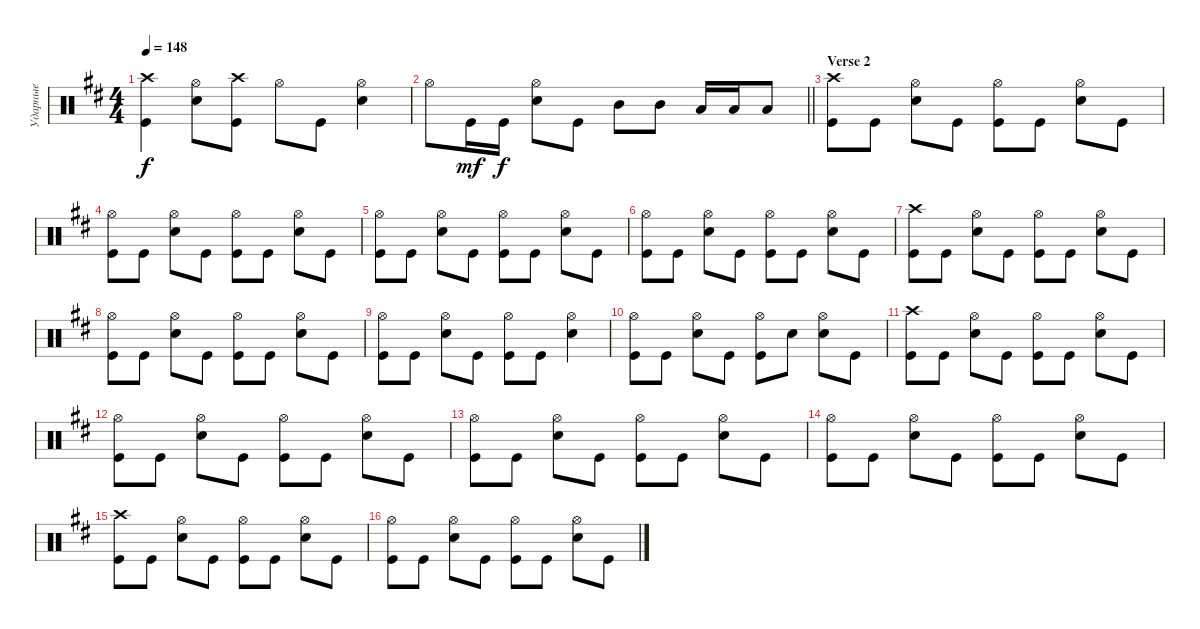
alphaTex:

\track ("Ударные" "Ударные") {instrument percussion}
\staff {score}
\articulation defaults
\ts (4 4)
\tempo 148
\clef neutral
\ks bminor
("Kick (hit)" "Crash high (hit)").4{dy f} ("Snare (hit) 2" "Hi-Hat (open)").8 ("Kick (hit)" "Crash high (hit)").8 "Hi-Hat (open)".8 "Kick (hit)".8 ("Snare (hit) 2" "Hi-Hat (open)").4 |
\barLineRight lightlight "Hi-Hat (open)".8 "Kick (hit)".16{dy mf} "Kick (hit)".16{dy f}
("Snare (hit) 2" "Hi-Hat (open)").8 "Kick (hit)".8 "Mid Tom (hit)".8 "Mid Tom (hit)".8 "Low Tom (hit)".16 "Low Tom (hit)".16 "Low Tom (hit)".8 |
\section ("" "Verse 2")
("Crash high (hit)" "Kick (hit)").8 "Kick (hit)".8 ("Snare (hit) 2" "Hi-Hat (open)").8 "Kick (hit)".8 ("Kick (hit)" "Hi-Hat (open)").8 "Kick (hit)".8 ("Snare (hit) 2" "Hi-Hat (open)").8 "Kick (hit)".8 |
("Hi-Hat (open)" "Kick (hit)").8 "Kick (hit)".8 ("Snare (hit) 2" "Hi-Hat (open)").8 "Kick (hit)".8 ("Kick (hit)" "Hi-Hat (open)").8 "Kick (hit)".8 ("Snare (hit) 2" "Hi-Hat (open)").8 "Kick (hit)".8 |
("Hi-Hat (open)" "Kick (hit)").8 "Kick (hit)".8 ("Snare (hit) 2" "Hi-Hat (open)").8 "Kick (hit)".8 ("Kick (hit)" "Hi-Hat (open)").8 "Kick (hit)".8 ("Snare (hit) 2" "Hi-Hat (open)").8 "Kick (hit)".8 |
("Hi-Hat (open)" "Kick (hit)").8 "Kick (hit)".8 ("Snare (hit) 2" "Hi-Hat (open)").8 "Kick (hit)".8 ("Kick (hit)" "Hi-Hat (open)").8 "Kick (hit)".8 ("Snare (hit) 2" "Hi-Hat (open)").8 "Kick (hit)".8 |
("Crash high (hit)" "Kick (hit)").8 "Kick (hit)".8 ("Snare (hit) 2" "Hi-Hat (open)").8 "Kick (hit)".8 ("Kick (hit)" "Hi-Hat (open)").8 "Kick (hit)".8 ("Snare (hit) 2" "Hi-Hat (open)").8 "Kick (hit)".8 |
("Hi-Hat (open)" "Kick (hit)").8 "Kick (hit)".8 ("Snare (hit) 2" "Hi-Hat (open)").8 "Kick (hit)".8 ("Kick (hit)" "Hi-Hat (open)").8 "Kick (hit)".8 ("Snare (hit) 2" "Hi-Hat (open)").8 "Kick (hit)".8 |
("Hi-Hat (open)" "Kick (hit)").8 "Kick (hit)".8 ("Snare (hit) 2" "Hi-Hat (open)").8 "Kick (hit)".8 ("Kick (hit)" "Hi-Hat (open)").8 "Kick (hit)".8 ("Snare (hit) 2" "Hi-Hat (open)").4 |
("Hi-Hat (open)" "Kick (hit)").8 "Kick (hit)".8 ("Snare (hit) 2" "Hi-Hat (open)").8 "Kick (hit)".8 ("Kick (hit)" "Hi-Hat (open)").8 "Snare (hit) 2".8 ("Snare (hit) 2" "Hi-Hat (open)").8 "Kick (hit)".8 |
("Crash high (hit)" "Kick (hit)").8 "Kick (hit)".8 ("Snare (hit) 2" "Hi-Hat (open)").8 "Kick (hit)".8 ("Kick (hit)" "Hi-Hat (open)").8 "Kick (hit)".8 ("Snare (hit) 2" "Hi-Hat (open)").8 "Kick (hit)".8 |
("Hi-Hat (open)" "Kick (hit)").8 "Kick (hit)".8 ("Snare (hit) 2" "Hi-Hat (open)").8 "Kick (hit)".8 ("Kick (hit)" "Hi-Hat (open)").8 "Kick (hit)".8 ("Snare (hit) 2" "Hi-Hat (open)").8 "Kick (hit)".8 |
("Hi-Hat (open)" "Kick (hit)").8 "Kick (hit)".8 ("Snare (hit) 2" "Hi-Hat (open)").8 "Kick (hit)".8 ("Kick (hit)" "Hi-Hat (open)").8 "Kick (hit)".8 ("Snare (hit) 2" "Hi-Hat (open)").8 "Kick (hit)".8 |
("Hi-Hat (open)" "Kick (hit)").8 "Kick (hit)".8 ("Snare (hit) 2" "Hi-Hat (open)").8 "Kick (hit)".8 ("Kick (hit)" "Hi-Hat (open)").8 "Kick (hit)".8 ("Snare (hit) 2" "Hi-Hat (open)").8 "Kick (hit)".8 |
("Crash high (hit)" "Kick (hit)").8 "Kick (hit)".8 ("Snare (hit) 2" "Hi-Hat (open)").8 "Kick (hit)".8 ("Kick (hit)" "Hi-Hat (open)").8 "Kick (hit)".8 ("Snare (hit) 2" "Hi-Hat (open)").8 "Kick (hit)".8 |
("Hi-Hat (open)" "Kick (hit)").8 "Kick (hit)".8 ("Snare (hit) 2" "Hi-Hat (open)").8 "Kick (hit)".8 ("Kick (hit)" "Hi-Hat (open)").8 "Kick (hit)".8 ("Snare (hit) 2" "Hi-Hat (open)").8 "Kick (hit)".8
